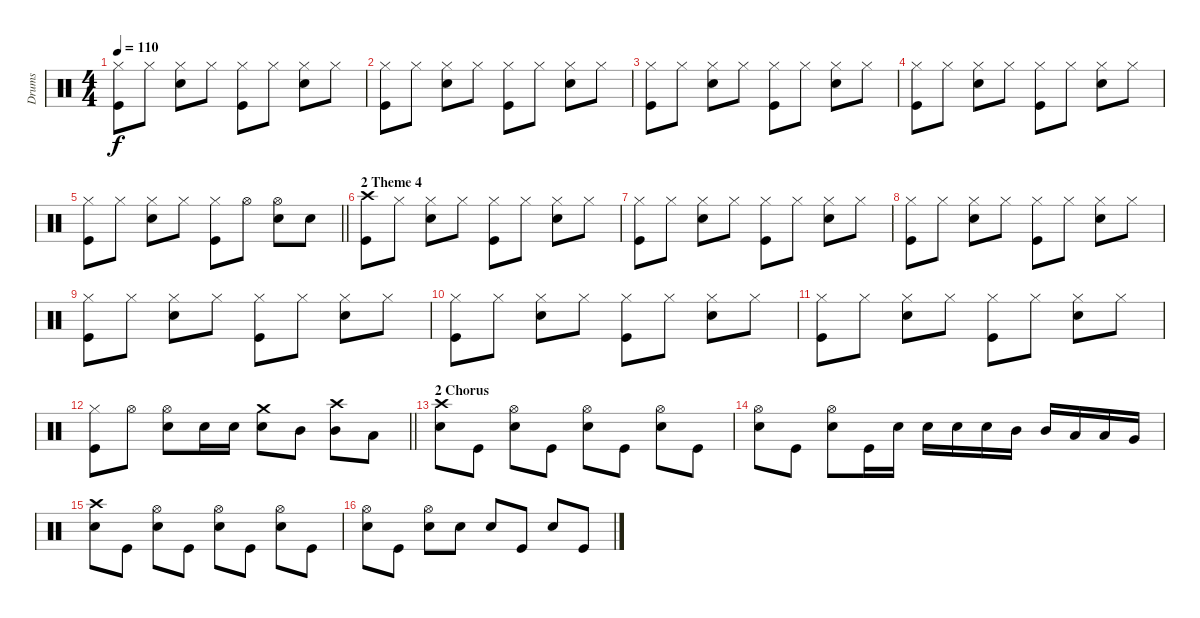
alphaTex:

\track ("Drums" "Drums") {instrument percussion}
\staff {score}
\articulation defaults
\ts (4 4)
\tempo 110
\clef neutral
\ks c
("Kick (hit)" "Hi-Hat (closed)").8{dy f} "Hi-Hat (closed)".8 ("Hi-Hat (closed)" "Electric Snare (hit)").8 "Hi-Hat (closed)".8 ("Kick (hit)" "Hi-Hat (closed)").8 "Hi-Hat (closed)".8 ("Hi-Hat (closed)" "Electric Snare (hit)").8 "Hi-Hat (closed)".8 |
("Kick (hit)" "Hi-Hat (closed)").8 "Hi-Hat (closed)".8 ("Hi-Hat (closed)" "Electric Snare (hit)").8 "Hi-Hat (closed)".8 ("Kick (hit)" "Hi-Hat (closed)").8 "Hi-Hat (closed)".8 ("Hi-Hat (closed)" "Electric Snare (hit)").8 "Hi-Hat (closed)".8 |
("Kick (hit)" "Hi-Hat (closed)").8 "Hi-Hat (closed)".8 ("Hi-Hat (closed)" "Electric Snare (hit)").8 "Hi-Hat (closed)".8 ("Kick (hit)" "Hi-Hat (closed)").8 "Hi-Hat (closed)".8 ("Hi-Hat (closed)" "Electric Snare (hit)").8 "Hi-Hat (closed)".8 |
("Kick (hit)" "Hi-Hat (closed)").8 "Hi-Hat (closed)".8 ("Hi-Hat (closed)" "Electric Snare (hit)").8 "Hi-Hat (closed)".8 ("Kick (hit)" "Hi-Hat (closed)").8 "Hi-Hat (closed)".8 ("Hi-Hat (closed)" "Electric Snare (hit)").8 "Hi-Hat (closed)".8 |
\barLineRight lightlight
("Kick (hit)" "Hi-Hat (closed)").8 "Hi-Hat (closed)".8 ("Hi-Hat (closed)" "Electric Snare (hit)").8 "Hi-Hat (closed)".8 ("Kick (hit)" "Hi-Hat (closed)").8 "Hi-Hat (open)".8 ("Hi-Hat (open)" "Electric Snare (hit)").8 "Electric Snare (hit)".8 |
\section ("" "2 Theme 4")
("Kick (hit)" "Crash high (hit)").8 "Hi-Hat (closed)".8 ("Hi-Hat (closed)" "Electric Snare (hit)").8 "Hi-Hat (closed)".8 ("Kick (hit)" "Hi-Hat (closed)").8 "Hi-Hat (closed)".8 ("Hi-Hat (closed)" "Electric Snare (hit)").8 "Hi-Hat (closed)".8 |
("Kick (hit)" "Hi-Hat (closed)").8 "Hi-Hat (closed)".8 ("Hi-Hat (closed)" "Electric Snare (hit)").8 "Hi-Hat (closed)".8 ("Kick (hit)" "Hi-Hat (closed)").8 "Hi-Hat (closed)".8 ("Hi-Hat (closed)" "Electric Snare (hit)").8 "Hi-Hat (closed)".8 |
("Kick (hit)" "Hi-Hat (closed)").8 "Hi-Hat (closed)".8 ("Hi-Hat (closed)" "Electric Snare (hit)").8 "Hi-Hat (closed)".8 ("Kick (hit)" "Hi-Hat (closed)").8 "Hi-Hat (closed)".8 ("Hi-Hat (closed)" "Electric Snare (hit)").8 "Hi-Hat (closed)".8 |
("Kick (hit)" "Hi-Hat (closed)").8 "Hi-Hat (closed)".8 ("Hi-Hat (closed)" "Electric Snare (hit)").8 "Hi-Hat (closed)".8 ("Kick (hit)" "Hi-Hat (closed)").8 "Hi-Hat (closed)".8 ("Hi-Hat (closed)" "Electric Snare (hit)").8 "Hi-Hat (closed)".8 |
("Kick (hit)" "Hi-Hat (closed)").8 "Hi-Hat (closed)".8 ("Hi-Hat (closed)" "Electric Snare (hit)").8 "Hi-Hat (closed)".8 ("Kick (hit)" "Hi-Hat (closed)").8 "Hi-Hat (closed)".8 ("Hi-Hat (closed)" "Electric Snare (hit)").8 "Hi-Hat (closed)".8 |
("Kick (hit)" "Hi-Hat (closed)").8 "Hi-Hat (closed)".8 ("Hi-Hat (closed)" "Electric Snare (hit)").8 "Hi-Hat (closed)".8 ("Kick (hit)" "Hi-Hat (closed)").8 "Hi-Hat (closed)".8 ("Hi-Hat (closed)" "Electric Snare (hit)").8 "Hi-Hat (closed)".8 |
\barLineRight lightlight
("Kick (hit)" "Hi-Hat (closed)").8 "Hi-Hat (open)".8 ("Hi-Hat (open)" "Electric Snare (hit)").8 "Electric Snare (hit)".16 "Electric Snare (hit)".16 ("Electric Snare (hit)" "Crash medium (hit)").8 "Mid Tom (hit)".8 ("Mid Tom (hit)" "Crash high (hit)").8 "Low Tom (hit)".8 |
\section ("" "2 Chorus")
("Electric Snare (hit)" "Crash high (hit)").8 "Kick (hit)".8 ("Hi-Hat (open)" "Electric Snare (hit)").8 "Kick (hit)".8 ("Hi-Hat (open)" "Electric Snare (hit)").8 "Kick (hit)".8 ("Hi-Hat (open)" "Electric Snare (hit)").8 "Kick (hit)".8 |
("Hi-Hat (open)" "Electric Snare (hit)").8 "Kick (hit)".8 ("Hi-Hat (open)" "Electric Snare (hit)").8 "Kick (hit)".16 "Electric Snare (hit)".16 "Electric Snare (hit)".16 "Electric Snare (hit)".16 "Electric Snare (hit)".16 "Mid Tom (hit)".16 "Mid Tom (hit)".16 "Low Tom (hit)".16 "Low Tom (hit)".16 "Very Low Tom (hit)".16 |
("Electric Snare (hit)" "Crash high (hit)").8 "Kick (hit)".8 ("Hi-Hat (open)" "Electric Snare (hit)").8 "Kick (hit)".8 ("Hi-Hat (open)" "Electric Snare (hit)").8 "Kick (hit)".8 ("Hi-Hat (open)" "Electric Snare (hit)").8 "Kick (hit)".8 |
("Hi-Hat (open)" "Electric Snare (hit)").8 "Kick (hit)".8 ("Hi-Hat (open)" "Electric Snare (hit)").8 "Electric Snare (hit)".8 "Electric Snare (hit)".8 "Kick (hit)".8 "Electric Snare (hit)".8 "Kick (hit)".8
